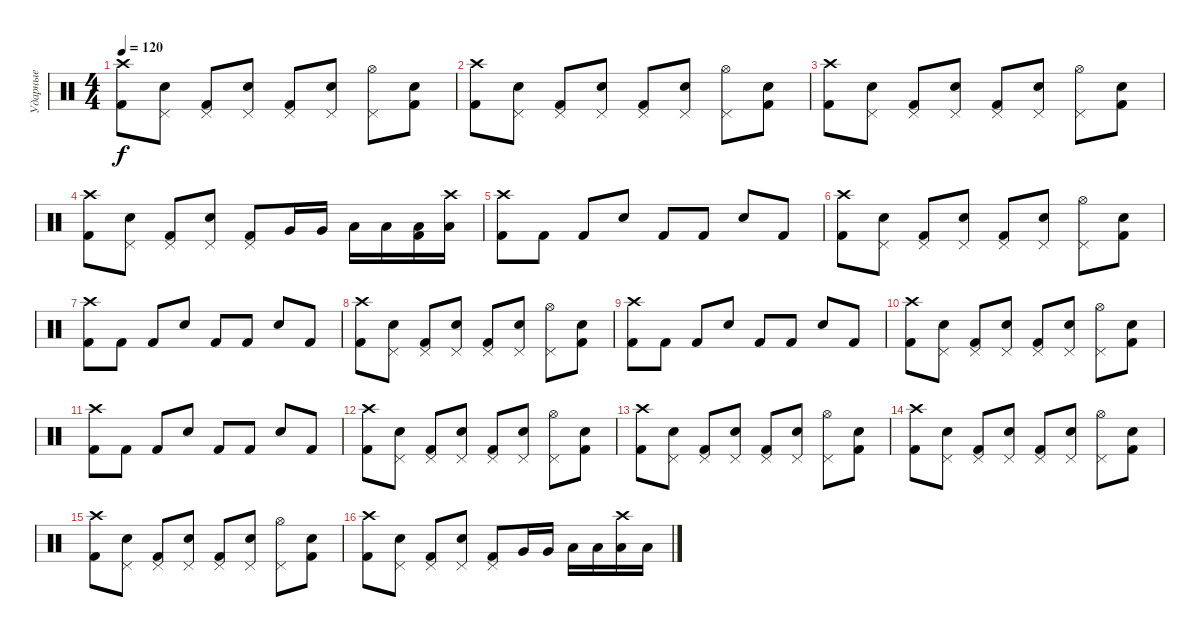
\track ("Ударные" "Ударные") {instrument percussion}
\staff {score}
\articulation defaults
\ts (4 4)
\tempo 120
\clef neutral
\ks c
("Crash high (hit)" "Kick (hit) 2").8{dy f} ("Electric Snare (hit)" "Pedal Hi-Hat (hit)").8 ("Pedal Hi-Hat (hit)" "Kick (hit) 2").8 ("Electric Snare (hit)" "Pedal Hi-Hat (hit)").8 ("Pedal Hi-Hat (hit)" "Kick (hit) 2").8 ("Electric Snare (hit)" "Pedal Hi-Hat (hit)").8 ("Hi-Hat (open)" "Pedal Hi-Hat (hit)").8 ("Electric Snare (hit)" "Kick (hit) 2").8 |
("Crash high (hit)" "Kick (hit) 2").8 ("Electric Snare (hit)" "Pedal Hi-Hat (hit)").8 ("Pedal Hi-Hat (hit)" "Kick (hit) 2").8 ("Electric Snare (hit)" "Pedal Hi-Hat (hit)").8 ("Pedal Hi-Hat (hit)" "Kick (hit) 2").8 ("Electric Snare (hit)" "Pedal Hi-Hat (hit)").8 ("Hi-Hat (open)" "Pedal Hi-Hat (hit)").8 ("Electric Snare (hit)" "Kick (hit) 2").8 |
("Crash high (hit)" "Kick (hit) 2").8 ("Electric Snare (hit)" "Pedal Hi-Hat (hit)").8 ("Pedal Hi-Hat (hit)" "Kick (hit) 2").8 ("Electric Snare (hit)" "Pedal Hi-Hat (hit)").8 ("Pedal Hi-Hat (hit)" "Kick (hit) 2").8 ("Electric Snare (hit)" "Pedal Hi-Hat (hit)").8 ("Hi-Hat (open)" "Pedal Hi-Hat (hit)").8 ("Electric Snare (hit)" "Kick (hit) 2").8 |
("Crash high (hit)" "Kick (hit) 2").8 ("Electric Snare (hit)" "Pedal Hi-Hat (hit)").8 ("Pedal Hi-Hat (hit)" "Kick (hit) 2").8 ("Electric Snare (hit)" "Pedal Hi-Hat (hit)").8 ("Pedal Hi-Hat (hit)" "Kick (hit) 2").8 "Very Low Tom (hit)".16 "Very Low Tom (hit)".16 "Low Floor Tom (hit)".16 "Low Floor Tom (hit)".16 ("Low Floor Tom (hit)" "Kick (hit) 2").16 ("Low Tom (hit)" "Crash high (hit)").16 |
("Crash high (hit)" "Kick (hit) 2").8 "Kick (hit) 2".8 "Kick (hit) 2".8 "Electric Snare (hit)".8 "Kick (hit) 2".8 "Kick (hit) 2".8 "Electric Snare (hit)".8 "Kick (hit) 2".8 |
("Crash high (hit)" "Kick (hit) 2").8 ("Electric Snare (hit)" "Pedal Hi-Hat (hit)").8 ("Pedal Hi-Hat (hit)" "Kick (hit) 2").8 ("Electric Snare (hit)" "Pedal Hi-Hat (hit)").8 ("Pedal Hi-Hat (hit)" "Kick (hit) 2").8 ("Electric Snare (hit)" "Pedal Hi-Hat (hit)").8 ("Hi-Hat (open)" "Pedal Hi-Hat (hit)").8 ("Electric Snare (hit)" "Kick (hit) 2").8 |
("Crash high (hit)" "Kick (hit) 2").8 "Kick (hit) 2".8 "Kick (hit) 2".8 "Electric Snare (hit)".8 "Kick (hit) 2".8 "Kick (hit) 2".8 "Electric Snare (hit)".8 "Kick (hit) 2".8 |
("Crash high (hit)" "Kick (hit) 2").8 ("Electric Snare (hit)" "Pedal Hi-Hat (hit)").8 ("Pedal Hi-Hat (hit)" "Kick (hit) 2").8 ("Electric Snare (hit)" "Pedal Hi-Hat (hit)").8 ("Pedal Hi-Hat (hit)" "Kick (hit) 2").8 ("Electric Snare (hit)" "Pedal Hi-Hat (hit)").8 ("Hi-Hat (open)" "Pedal Hi-Hat (hit)").8 ("Electric Snare (hit)" "Kick (hit) 2").8 |
("Crash high (hit)" "Kick (hit) 2").8 "Kick (hit) 2".8 "Kick (hit) 2".8 "Electric Snare (hit)".8 "Kick (hit) 2".8 "Kick (hit) 2".8 "Electric Snare (hit)".8 "Kick (hit) 2".8 |
("Crash high (hit)" "Kick (hit) 2").8 ("Electric Snare (hit)" "Pedal Hi-Hat (hit)").8 ("Pedal Hi-Hat (hit)" "Kick (hit) 2").8 ("Electric Snare (hit)" "Pedal Hi-Hat (hit)").8 ("Pedal Hi-Hat (hit)" "Kick (hit) 2").8 ("Electric Snare (hit)" "Pedal Hi-Hat (hit)").8 ("Hi-Hat (open)" "Pedal Hi-Hat (hit)").8 ("Electric Snare (hit)" "Kick (hit) 2").8 |
("Crash high (hit)" "Kick (hit) 2").8 "Kick (hit) 2".8 "Kick (hit) 2".8 "Electric Snare (hit)".8 "Kick (hit) 2".8 "Kick (hit) 2".8 "Electric Snare (hit)".8 "Kick (hit) 2".8 |
("Crash high (hit)" "Kick (hit) 2").8 ("Electric Snare (hit)" "Pedal Hi-Hat (hit)").8 ("Pedal Hi-Hat (hit)" "Kick (hit) 2").8 ("Electric Snare (hit)" "Pedal Hi-Hat (hit)").8 ("Pedal Hi-Hat (hit)" "Kick (hit) 2").8 ("Electric Snare (hit)" "Pedal Hi-Hat (hit)").8 ("Hi-Hat (open)" "Pedal Hi-Hat (hit)").8 ("Electric Snare (hit)" "Kick (hit) 2").8 |
("Crash high (hit)" "Kick (hit) 2").8 ("Electric Snare (hit)" "Pedal Hi-Hat (hit)").8 ("Pedal Hi-Hat (hit)" "Kick (hit) 2").8 ("Electric Snare (hit)" "Pedal Hi-Hat (hit)").8 ("Pedal Hi-Hat (hit)" "Kick (hit) 2").8 ("Electric Snare (hit)" "Pedal Hi-Hat (hit)").8 ("Hi-Hat (open)" "Pedal Hi-Hat (hit)").8 ("Electric Snare (hit)" "Kick (hit) 2").8 |
("Crash high (hit)" "Kick (hit) 2").8 ("Electric Snare (hit)" "Pedal Hi-Hat (hit)").8 ("Pedal Hi-Hat (hit)" "Kick (hit) 2").8 ("Electric Snare (hit)" "Pedal Hi-Hat (hit)").8 ("Pedal Hi-Hat (hit)" "Kick (hit) 2").8 ("Electric Snare (hit)" "Pedal Hi-Hat (hit)").8 ("Hi-Hat (open)" "Pedal Hi-Hat (hit)").8 ("Electric Snare (hit)" "Kick (hit) 2").8 |
("Crash high (hit)" "Kick (hit) 2").8 ("Electric Snare (hit)" "Pedal Hi-Hat (hit)").8 ("Pedal Hi-Hat (hit)" "Kick (hit) 2").8 ("Electric Snare (hit)" "Pedal Hi-Hat (hit)").8 ("Pedal Hi-Hat (hit)" "Kick (hit) 2").8 ("Electric Snare (hit)" "Pedal Hi-Hat (hit)").8 ("Hi-Hat (open)" "Pedal Hi-Hat (hit)").8 ("Electric Snare (hit)" "Kick (hit) 2").8 |
("Crash high (hit)" "Kick (hit) 2").8 ("Electric Snare (hit)" "Pedal Hi-Hat (hit)").8 ("Pedal Hi-Hat (hit)" "Kick (hit) 2").8 ("Electric Snare (hit)" "Pedal Hi-Hat (hit)").8 ("Pedal Hi-Hat (hit)" "Kick (hit) 2").8 "Very Low Tom (hit)".16 "Very Low Tom (hit)".16 "Low Floor Tom (hit)".16 "Low Floor Tom (hit)".16 ("Crash high (hit)" "Low Floor Tom (hit)").16 "Low Tom (hit)".16
